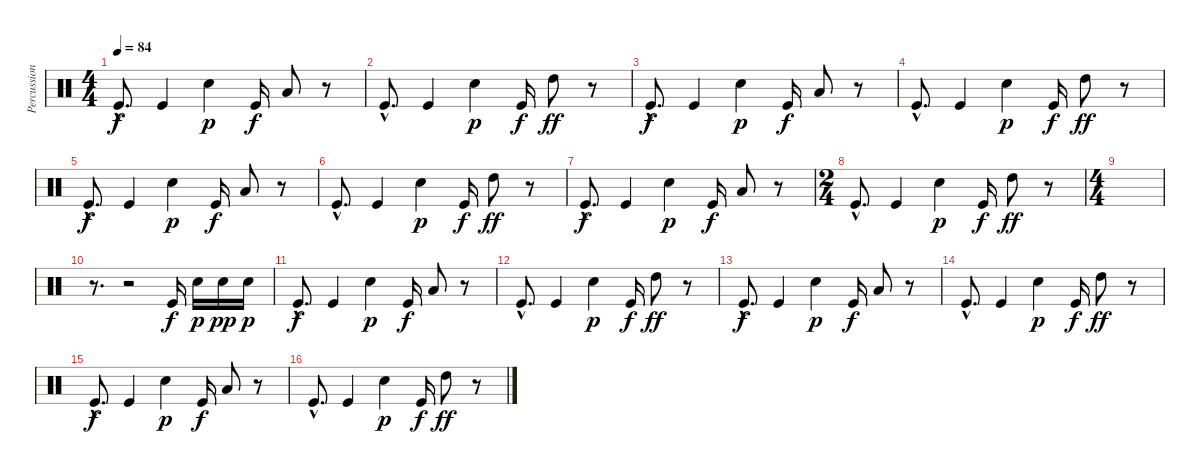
\track ("Percussions" "Percussion") {instrument percussion}
\staff {score}
\articulation defaults
\ts (4 4)
\tempo 84
\clef neutral
\ks c "Kick (hit)"{hac}.8{d dy f} "Kick (hit)".4 "Snare (hit) 2".4{dy p} "Kick (hit)".16{dy f} "Low Tom (hit)".8
r.8 |
"Kick (hit)"{hac}.8{d} "Kick (hit)".4 "Snare (hit) 2".4{dy p} "Kick (hit)".16{dy f} "High Tom (hit)".8{dy ff} r.8 |
"Kick (hit)"{hac}.8{d dy f} "Kick (hit)".4 "Snare (hit) 2".4{dy p} "Kick (hit)".16{dy f} "Low Tom (hit)".8 r.8 |
"Kick (hit)"{hac}.8{d} "Kick (hit)".4 "Snare (hit) 2".4{dy p} "Kick (hit)".16{dy f} "High Tom (hit)".8{dy ff} r.8 |
"Kick (hit)"{hac}.8{d dy f} "Kick (hit)".4 "Snare (hit) 2".4{dy p} "Kick (hit)".16{dy f} "Low Tom (hit)".8 r.8 |
"Kick (hit)"{hac}.8{d} "Kick (hit)".4 "Snare (hit) 2".4{dy p} "Kick (hit)".16{dy f} "High Tom (hit)".8{dy ff} r.8 |
"Kick (hit)"{hac}.8{d dy f} "Kick (hit)".4 "Snare (hit) 2".4{dy p} "Kick (hit)".16{dy f} "Low Tom (hit)".8 r.8 |
\ts (2 4)
"Kick (hit)"{hac}.8{d} "Kick (hit)".4 "Snare (hit) 2".4{dy p} "Kick (hit)".16{dy f} "High Tom (hit)".8{dy ff} r.8 |
\ts (4 4)
|
r.8{d} r.2 "Kick (hit)".16{dy f} "Snare (hit) 2".16{dy p} "Snare (hit) 2".16{dy pp} "Snare (hit) 2".16{dy p} |
"Kick (hit)"{hac}.8{d dy f} "Kick (hit)".4 "Snare (hit) 2".4{dy p} "Kick (hit)".16{dy f} "Low Tom (hit)".8 r.8 |
"Kick (hit)"{hac}.8{d} "Kick (hit)".4 "Snare (hit) 2".4{dy p} "Kick (hit)".16{dy f} "High Tom (hit)".8{dy ff} r.8 |
"Kick (hit)"{hac}.8{d dy f} "Kick (hit)".4 "Snare (hit) 2".4{dy p} "Kick (hit)".16{dy f} "Low Tom (hit)".8 r.8 |
"Kick (hit)"{hac}.8{d} "Kick (hit)".4 "Snare (hit) 2".4{dy p} "Kick (hit)".16{dy f} "High Tom (hit)".8{dy ff} r.8 |
"Kick (hit)"{hac}.8{d dy f} "Kick (hit)".4 "Snare (hit) 2".4{dy p} "Kick (hit)".16{dy f} "Low Tom (hit)".8 r.8 |
"Kick (hit)"{hac}.8{d} "Kick (hit)".4 "Snare (hit) 2".4{dy p} "Kick (hit)".16{dy f} "High Tom (hit)".8{dy ff} r.8
